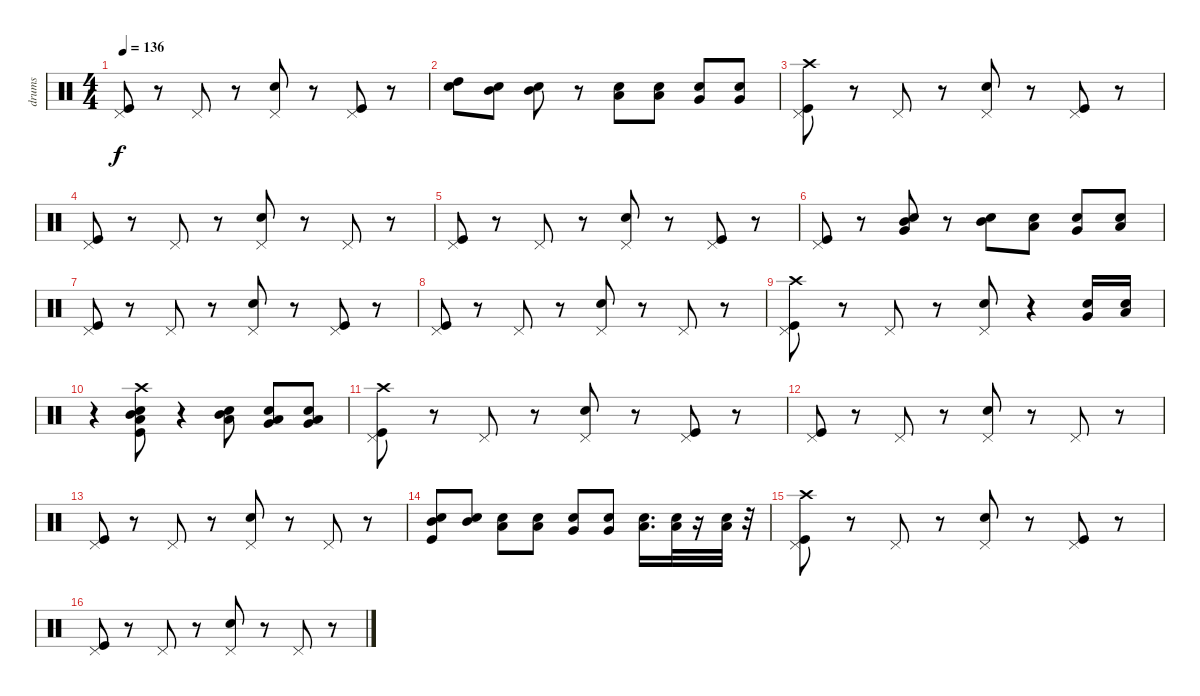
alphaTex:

\track ("drums" "drums") {instrument percussion}
\staff {score}
\articulation defaults
\ts (4 4)
\tempo 136
\clef neutral
\ks c
("Kick (hit)" "Pedal Hi-Hat (hit)").8{dy f} r.8 "Pedal Hi-Hat (hit)".8 r.8 ("Snare (hit) 2" "Pedal Hi-Hat (hit)").8 r.8 ("Kick (hit)" "Pedal Hi-Hat (hit)").8 r.8 |
("Snare (hit) 2" "High Tom (hit)").8 ("Snare (hit) 2" "Mid Tom (hit)").8 ("Snare (hit) 2" "Mid Tom (hit)").8 r.8 ("Snare (hit) 2" "Low Tom (hit)").8 ("Low Tom (hit)" "Snare (hit) 2").8 ("Snare (hit) 2" "Very Low Tom (hit)").8 ("Snare (hit) 2" "Very Low Tom (hit)").8 |
("Kick (hit)" "Crash high (hit)" "Pedal Hi-Hat (hit)").8 r.8 "Pedal Hi-Hat (hit)".8 r.8 ("Snare (hit) 2" "Pedal Hi-Hat (hit)").8 r.8 ("Kick (hit)" "Pedal Hi-Hat (hit)").8 r.8 |
("Kick (hit)" "Pedal Hi-Hat (hit)").8 r.8 "Pedal Hi-Hat (hit)".8 r.8 ("Snare (hit) 2" "Pedal Hi-Hat (hit)").8 r.8 "Pedal Hi-Hat (hit)".8 r.8 |
("Kick (hit)" "Pedal Hi-Hat (hit)").8 r.8 "Pedal Hi-Hat (hit)".8 r.8 ("Snare (hit) 2" "Pedal Hi-Hat (hit)").8 r.8 ("Kick (hit)" "Pedal Hi-Hat (hit)").8 r.8 |
("Kick (hit)" "Pedal Hi-Hat (hit)").8 r.8 ("Snare (hit) 2" "Mid Tom (hit)" "Very Low Tom (hit)").8 r.8 ("Snare (hit) 2" "Mid Tom (hit)").8 ("Low Tom (hit)" "Snare (hit) 2").8 ("Snare (hit) 2" "Very Low Tom (hit)").8 ("Snare (hit) 2" "Low Floor Tom (hit)").8 |
("Kick (hit)" "Pedal Hi-Hat (hit)").8 r.8 "Pedal Hi-Hat (hit)".8 r.8 ("Snare (hit) 2" "Pedal Hi-Hat (hit)").8 r.8 ("Kick (hit)" "Pedal Hi-Hat (hit)").8 r.8 |
("Kick (hit)" "Pedal Hi-Hat (hit)").8 r.8 "Pedal Hi-Hat (hit)".8 r.8 ("Snare (hit) 2" "Pedal Hi-Hat (hit)").8 r.8 "Pedal Hi-Hat (hit)".8 r.8 |
("Kick (hit)" "Crash high (hit)" "Pedal Hi-Hat (hit)").8 r.8 "Pedal Hi-Hat (hit)".8 r.8 ("Snare (hit) 2" "Pedal Hi-Hat (hit)").8 r.4 ("Snare (hit) 2" "Very Low Tom (hit)").16 ("Snare (hit) 2" "Low Floor Tom (hit)").16 |
r.4 ("Snare (hit) 2" "Kick (hit)" "Crash high (hit)" "Mid Tom (hit)" "Low Tom (hit)").8 r.4 ("Snare (hit) 2" "Mid Tom (hit)" "Low Tom (hit)").8 ("Snare (hit) 2" "Low Tom (hit)" "Very Low Tom (hit)").8 ("Snare (hit) 2" "Low Floor Tom (hit)" "Very Low Tom (hit)").8 |
("Kick (hit)" "Crash high (hit)" "Pedal Hi-Hat (hit)").8 r.8 "Pedal Hi-Hat (hit)".8 r.8 ("Snare (hit) 2" "Pedal Hi-Hat (hit)").8 r.8 ("Kick (hit)" "Pedal Hi-Hat (hit)").8 r.8 |
("Kick (hit)" "Pedal Hi-Hat (hit)").8 r.8 "Pedal Hi-Hat (hit)".8 r.8 ("Snare (hit) 2" "Pedal Hi-Hat (hit)").8 r.8 "Pedal Hi-Hat (hit)".8 r.8 |
("Kick (hit)" "Pedal Hi-Hat (hit)").8 r.8 "Pedal Hi-Hat (hit)".8 r.8 ("Snare (hit) 2" "Pedal Hi-Hat (hit)").8 r.8 "Pedal Hi-Hat (hit)".8 r.8 |
("Kick (hit)" "Snare (hit) 2" "Mid Tom (hit)").8 ("Snare (hit) 2" "Mid Tom (hit)").8 ("Snare (hit) 2" "Low Tom (hit)").8 ("Snare (hit) 2" "Low Tom (hit)").8 ("Snare (hit) 2" "Very Low Tom (hit)").8 ("Snare (hit) 2" "Very Low Tom (hit)").8 ("Low Floor Tom (hit)" "Snare (hit) 2").16{d} ("Snare (hit) 2" "Low Floor Tom (hit)").32 r.16 ("Snare (hit) 2" "Low Floor Tom (hit)").32 r.32 |
("Kick (hit)" "Crash high (hit)" "Pedal Hi-Hat (hit)").8 r.8 "Pedal Hi-Hat (hit)".8 r.8 ("Snare (hit) 2" "Pedal Hi-Hat (hit)").8 r.8 ("Kick (hit)" "Pedal Hi-Hat (hit)").8 r.8 |
("Kick (hit)" "Pedal Hi-Hat (hit)").8 r.8 "Pedal Hi-Hat (hit)".8 r.8 ("Snare (hit) 2" "Pedal Hi-Hat (hit)").8 r.8 "Pedal Hi-Hat (hit)".8 r.8
